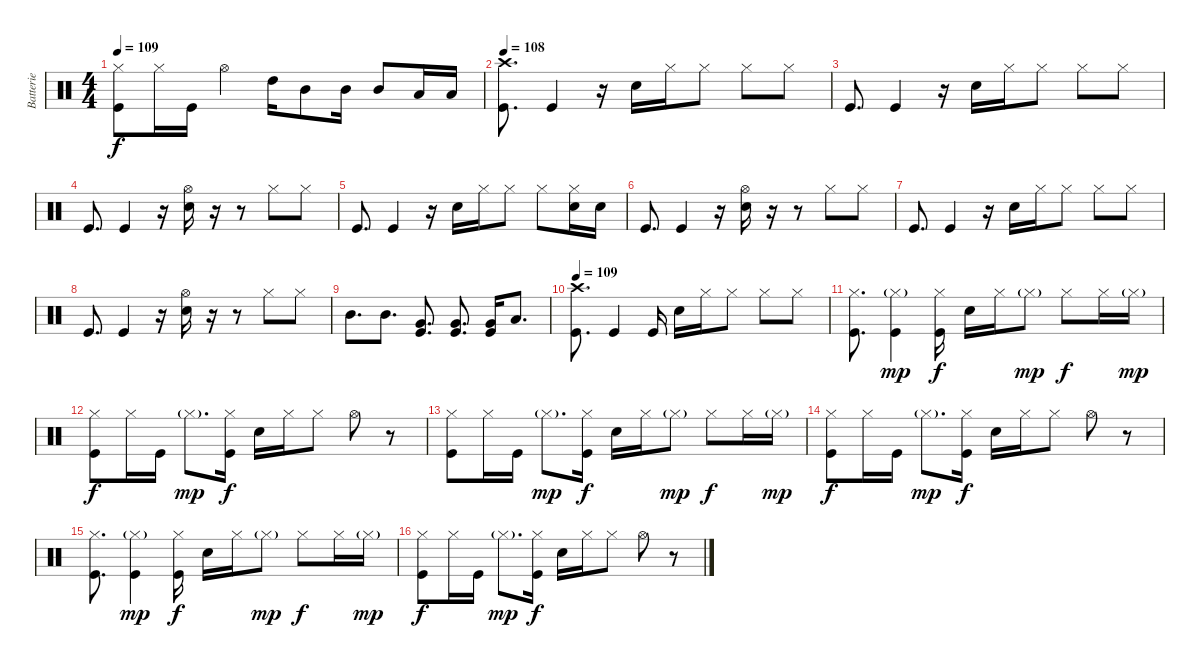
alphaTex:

\track ("Batterie" "Batterie") {instrument percussion}
\staff {score}
\articulation defaults
\ts (4 4)
\tempo 109
\clef neutral
\ks c
("Hi-Hat (closed)" "Kick (hit)").8{dy f} "Hi-Hat (closed)".16 "Kick (hit)".16 "Hi-Hat (open)".4 "High Tom (hit)".16 "Mid Tom (hit)".8 "Mid Tom (hit)".16 "Mid Tom (hit)".8 "Low Tom (hit)".16 "Low Tom (hit)".16 |
\tempo 108
("Crash high (hit)" "Kick (hit)").8{d} "Kick (hit)".4 r.16 "Electric Snare (hit)".16 "Hi-Hat (closed)".16 "Hi-Hat (closed)".8 "Hi-Hat (closed)".8 "Hi-Hat (closed)".8 |
"Kick (hit)".8{d} "Kick (hit)".4 r.16 "Electric Snare (hit)".16 "Hi-Hat (closed)".16 "Hi-Hat (closed)".8 "Hi-Hat (closed)".8 "Hi-Hat (closed)".8 |
"Kick (hit)".8{d} "Kick (hit)".4 r.16 ("Hi-Hat (open)" "Electric Snare (hit)").16 r.16 r.8 "Hi-Hat (closed)".8 "Hi-Hat (closed)".8 |
"Kick (hit)".8{d} "Kick (hit)".4 r.16 "Electric Snare (hit)".16 "Hi-Hat (closed)".16 "Hi-Hat (closed)".8 "Hi-Hat (closed)".8 ("Hi-Hat (closed)" "Electric Snare (hit)").16 "Electric Snare (hit)".16 |
"Kick (hit)".8{d} "Kick (hit)".4 r.16 ("Hi-Hat (open)" "Electric Snare (hit)").16 r.16 r.8 "Hi-Hat (closed)".8 "Hi-Hat (closed)".8 |
"Kick (hit)".8{d} "Kick (hit)".4 r.16 "Electric Snare (hit)".16 "Hi-Hat (closed)".16 "Hi-Hat (closed)".8 "Hi-Hat (closed)".8 "Hi-Hat (closed)".8 |
"Kick (hit)".8{d} "Kick (hit)".4 r.16 ("Hi-Hat (open)" "Electric Snare (hit)").16 r.16 r.8 "Hi-Hat (closed)".8 "Hi-Hat (closed)".8 |
"Mid Tom (hit)".8{d} "Mid Tom (hit)".8{d} ("Very Low Tom (hit)" "Kick (hit)").8{d} ("Very Low Tom (hit)" "Kick (hit)").8{d} ("Very Low Tom (hit)" "Kick (hit)").16 "Low Floor Tom (hit)".8{d} |
\tempo 109
("Crash high (hit)" "Kick (hit)").8{d} "Kick (hit)".4 "Kick (hit)".16 "Electric Snare (hit)".16 "Hi-Hat (closed)".16 "Hi-Hat (closed)".8 "Hi-Hat (closed)".8 "Hi-Hat (closed)".8 |
("Hi-Hat (closed)" "Kick (hit)").8{d} ("Hi-Hat (closed)"{g} "Kick (hit)").4{dy mp} ("Hi-Hat (closed)" "Kick (hit)").16{dy f} "Electric Snare (hit)".16 "Hi-Hat (closed)".16 "Hi-Hat (closed)"{g}.8{dy mp} "Hi-Hat (closed)".8{dy f} "Hi-Hat (closed)".16 "Hi-Hat (closed)"{g}.16{dy mp} |
("Hi-Hat (closed)" "Kick (hit)").8{dy f} "Hi-Hat (closed)".16 "Kick (hit)".16 "Hi-Hat (closed)"{g}.8{d dy mp} ("Hi-Hat (closed)" "Kick (hit)").16{dy f} "Electric Snare (hit)".16 "Hi-Hat (closed)".16 "Hi-Hat (closed)".8 "Hi-Hat (open)".8 r.8 |
("Hi-Hat (closed)" "Kick (hit)").8 "Hi-Hat (closed)".16 "Kick (hit)".16 "Hi-Hat (closed)"{g}.8{d dy mp} ("Hi-Hat (closed)" "Kick (hit)").16{dy f} "Electric Snare (hit)".16 "Hi-Hat (closed)".16 "Hi-Hat (closed)"{g}.8{dy mp} "Hi-Hat (closed)".8{dy f} "Hi-Hat (closed)".16 "Hi-Hat (closed)"{g}.16{dy mp} |
("Hi-Hat (closed)" "Kick (hit)").8{dy f} "Hi-Hat (closed)".16 "Kick (hit)".16 "Hi-Hat (closed)"{g}.8{d dy mp} ("Hi-Hat (closed)" "Kick (hit)").16{dy f} "Electric Snare (hit)".16 "Hi-Hat (closed)".16 "Hi-Hat (closed)".8 "Hi-Hat (open)".8 r.8 |
("Hi-Hat (closed)" "Kick (hit)").8{d} ("Hi-Hat (closed)"{g} "Kick (hit)").4{dy mp} ("Hi-Hat (closed)" "Kick (hit)").16{dy f} "Electric Snare (hit)".16 "Hi-Hat (closed)".16 "Hi-Hat (closed)"{g}.8{dy mp} "Hi-Hat (closed)".8{dy f} "Hi-Hat (closed)".16 "Hi-Hat (closed)"{g}.16{dy mp} |
("Hi-Hat (closed)" "Kick (hit)").8{dy f} "Hi-Hat (closed)".16 "Kick (hit)".16 "Hi-Hat (closed)"{g}.8{d dy mp} ("Hi-Hat (closed)" "Kick (hit)").16{dy f} "Electric Snare (hit)".16 "Hi-Hat (closed)".16 "Hi-Hat (closed)".8 "Hi-Hat (open)".8 r.8
